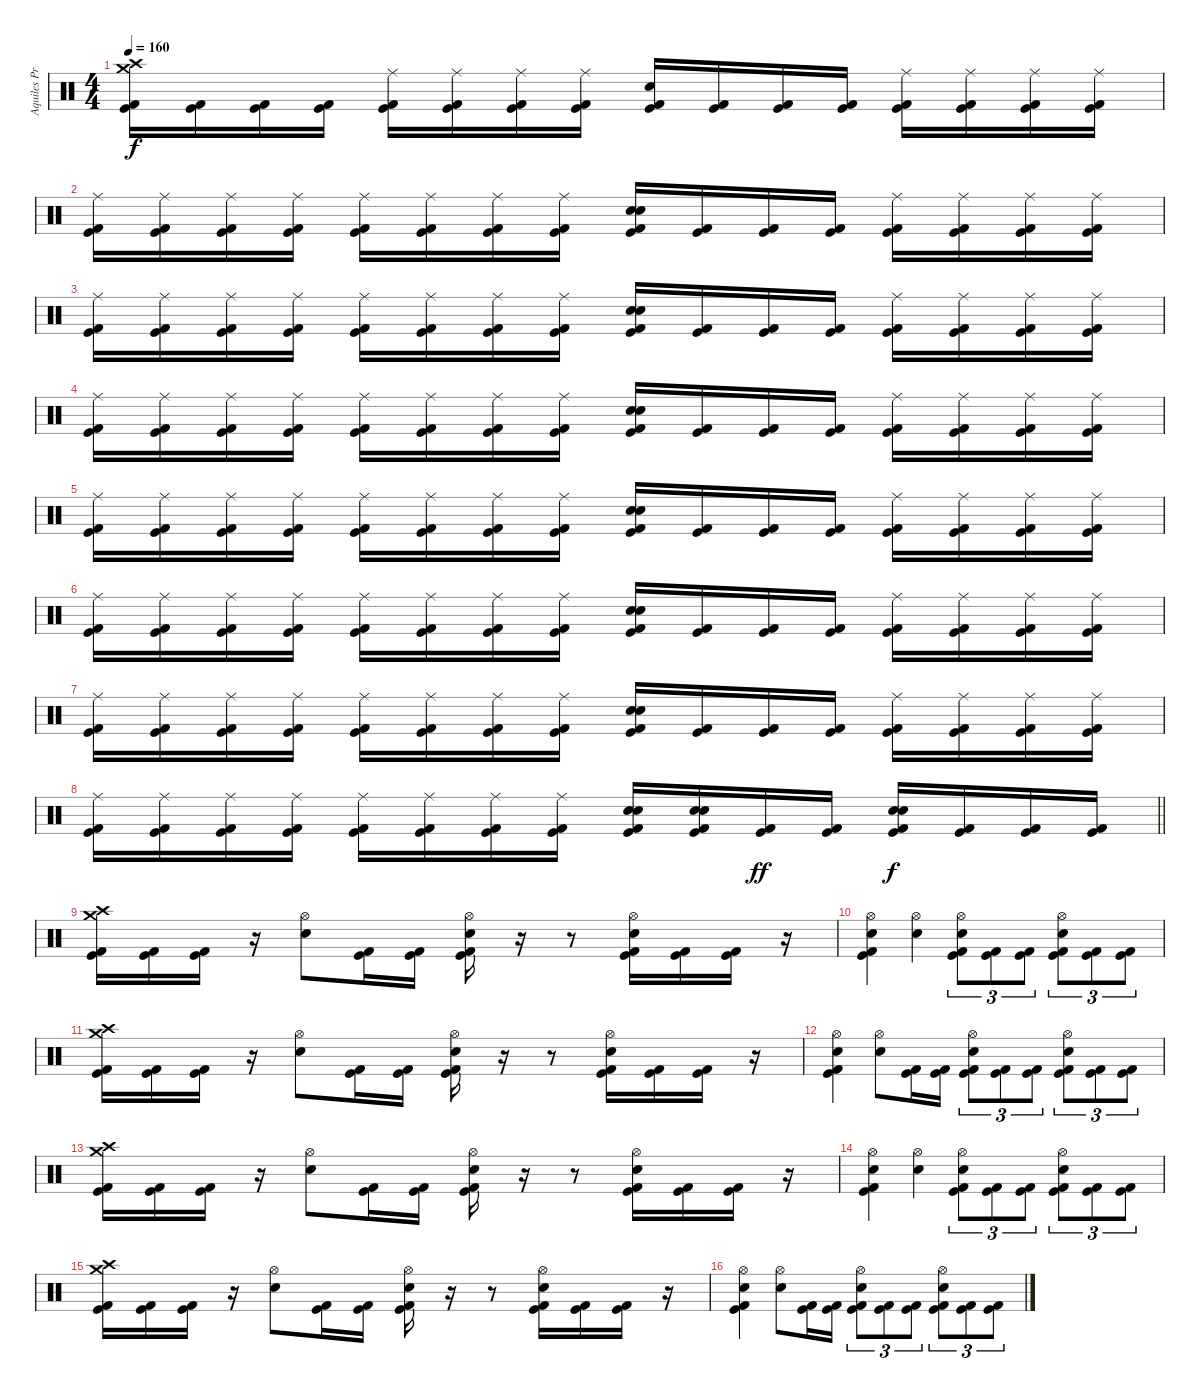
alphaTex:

\track ("Aquiles Priester" "Aquiles Pr") {instrument percussion}
\staff {score}
\articulation defaults
\ts (4 4)
\tempo 160
\clef neutral
\ks c
("Crash medium (hit)" "Crash high (hit)" "Kick (hit) 2" "Kick (hit)").16{dy f} ("Kick (hit) 2" "Kick (hit)").16 ("Kick (hit) 2" "Kick (hit)").16 ("Kick (hit) 2" "Kick (hit)").16 ("Ride (middle)" "Kick (hit) 2" "Kick (hit)").16 ("Ride (middle)" "Kick (hit) 2" "Kick (hit)").16 ("Ride (middle)" "Kick (hit) 2" "Kick (hit)").16 ("Ride (middle)" "Kick (hit) 2" "Kick (hit)").16 ("Electric Snare (hit)" "Kick (hit) 2" "Kick (hit)").16 ("Kick (hit) 2" "Kick (hit)").16 ("Kick (hit) 2" "Kick (hit)").16 ("Kick (hit) 2" "Kick (hit)").16 ("Ride (middle)" "Kick (hit) 2" "Kick (hit)").16 ("Ride (middle)" "Kick (hit) 2" "Kick (hit)").16 ("Ride (middle)" "Kick (hit) 2" "Kick (hit)").16 ("Ride (middle)" "Kick (hit) 2" "Kick (hit)").16 |
("Ride (middle)" "Kick (hit) 2" "Kick (hit)").16 ("Ride (middle)" "Kick (hit) 2" "Kick (hit)").16 ("Ride (middle)" "Kick (hit) 2" "Kick (hit)").16 ("Ride (middle)" "Kick (hit) 2" "Kick (hit)").16 ("Ride (middle)" "Kick (hit) 2" "Kick (hit)").16 ("Ride (middle)" "Kick (hit) 2" "Kick (hit)").16 ("Ride (middle)" "Kick (hit) 2" "Kick (hit)").16 ("Ride (middle)" "Kick (hit) 2" "Kick (hit)").16 ("Electric Snare (hit)" "Electric Snare (hit)" "Kick (hit) 2" "Kick (hit)").16 ("Kick (hit) 2" "Kick (hit)").16 ("Kick (hit) 2" "Kick (hit)").16 ("Kick (hit) 2" "Kick (hit)").16 ("Ride (middle)" "Kick (hit) 2" "Kick (hit)").16 ("Ride (middle)" "Kick (hit) 2" "Kick (hit)").16 ("Ride (middle)" "Kick (hit) 2" "Kick (hit)").16 ("Ride (middle)" "Kick (hit) 2" "Kick (hit)").16 |
("Ride (middle)" "Kick (hit) 2" "Kick (hit)").16 ("Ride (middle)" "Kick (hit) 2" "Kick (hit)").16 ("Ride (middle)" "Kick (hit) 2" "Kick (hit)").16 ("Ride (middle)" "Kick (hit) 2" "Kick (hit)").16 ("Ride (middle)" "Kick (hit) 2" "Kick (hit)").16 ("Ride (middle)" "Kick (hit) 2" "Kick (hit)").16 ("Ride (middle)" "Kick (hit) 2" "Kick (hit)").16 ("Ride (middle)" "Kick (hit) 2" "Kick (hit)").16 ("Electric Snare (hit)" "Electric Snare (hit)" "Kick (hit) 2" "Kick (hit)").16 ("Kick (hit) 2" "Kick (hit)").16 ("Kick (hit) 2" "Kick (hit)").16 ("Kick (hit) 2" "Kick (hit)").16 ("Ride (middle)" "Kick (hit) 2" "Kick (hit)").16 ("Ride (middle)" "Kick (hit) 2" "Kick (hit)").16 ("Ride (middle)" "Kick (hit) 2" "Kick (hit)").16 ("Ride (middle)" "Kick (hit) 2" "Kick (hit)").16 |
("Ride (middle)" "Kick (hit) 2" "Kick (hit)").16 ("Ride (middle)" "Kick (hit) 2" "Kick (hit)").16 ("Ride (middle)" "Kick (hit) 2" "Kick (hit)").16 ("Ride (middle)" "Kick (hit) 2" "Kick (hit)").16 ("Ride (middle)" "Kick (hit) 2" "Kick (hit)").16 ("Ride (middle)" "Kick (hit) 2" "Kick (hit)").16 ("Ride (middle)" "Kick (hit) 2" "Kick (hit)").16 ("Ride (middle)" "Kick (hit) 2" "Kick (hit)").16 ("Electric Snare (hit)" "Electric Snare (hit)" "Kick (hit) 2" "Kick (hit)").16 ("Kick (hit) 2" "Kick (hit)").16 ("Kick (hit) 2" "Kick (hit)").16 ("Kick (hit) 2" "Kick (hit)").16 ("Ride (middle)" "Kick (hit) 2" "Kick (hit)").16 ("Ride (middle)" "Kick (hit) 2" "Kick (hit)").16 ("Ride (middle)" "Kick (hit) 2" "Kick (hit)").16 ("Ride (middle)" "Kick (hit) 2" "Kick (hit)").16 |
("Ride (middle)" "Kick (hit) 2" "Kick (hit)").16 ("Ride (middle)" "Kick (hit) 2" "Kick (hit)").16 ("Ride (middle)" "Kick (hit) 2" "Kick (hit)").16 ("Ride (middle)" "Kick (hit) 2" "Kick (hit)").16 ("Ride (middle)" "Kick (hit) 2" "Kick (hit)").16 ("Ride (middle)" "Kick (hit) 2" "Kick (hit)").16 ("Ride (middle)" "Kick (hit) 2" "Kick (hit)").16 ("Ride (middle)" "Kick (hit) 2" "Kick (hit)").16 ("Electric Snare (hit)" "Electric Snare (hit)" "Kick (hit) 2" "Kick (hit)").16 ("Kick (hit) 2" "Kick (hit)").16 ("Kick (hit) 2" "Kick (hit)").16 ("Kick (hit) 2" "Kick (hit)").16 ("Ride (middle)" "Kick (hit) 2" "Kick (hit)").16 ("Ride (middle)" "Kick (hit) 2" "Kick (hit)").16 ("Ride (middle)" "Kick (hit) 2" "Kick (hit)").16 ("Ride (middle)" "Kick (hit) 2" "Kick (hit)").16 |
("Ride (middle)" "Kick (hit) 2" "Kick (hit)").16 ("Ride (middle)" "Kick (hit) 2" "Kick (hit)").16 ("Ride (middle)" "Kick (hit) 2" "Kick (hit)").16 ("Ride (middle)" "Kick (hit) 2" "Kick (hit)").16 ("Ride (middle)" "Kick (hit) 2" "Kick (hit)").16 ("Ride (middle)" "Kick (hit) 2" "Kick (hit)").16 ("Ride (middle)" "Kick (hit) 2" "Kick (hit)").16 ("Ride (middle)" "Kick (hit) 2" "Kick (hit)").16 ("Electric Snare (hit)" "Electric Snare (hit)" "Kick (hit) 2" "Kick (hit)").16 ("Kick (hit) 2" "Kick (hit)").16 ("Kick (hit) 2" "Kick (hit)").16 ("Kick (hit) 2" "Kick (hit)").16 ("Ride (middle)" "Kick (hit) 2" "Kick (hit)").16 ("Ride (middle)" "Kick (hit) 2" "Kick (hit)").16 ("Ride (middle)" "Kick (hit) 2" "Kick (hit)").16 ("Ride (middle)" "Kick (hit) 2" "Kick (hit)").16 |
("Ride (middle)" "Kick (hit) 2" "Kick (hit)").16 ("Ride (middle)" "Kick (hit) 2" "Kick (hit)").16 ("Ride (middle)" "Kick (hit) 2" "Kick (hit)").16 ("Ride (middle)" "Kick (hit) 2" "Kick (hit)").16 ("Ride (middle)" "Kick (hit) 2" "Kick (hit)").16 ("Ride (middle)" "Kick (hit) 2" "Kick (hit)").16 ("Ride (middle)" "Kick (hit) 2" "Kick (hit)").16 ("Ride (middle)" "Kick (hit) 2" "Kick (hit)").16 ("Electric Snare (hit)" "Electric Snare (hit)" "Kick (hit) 2" "Kick (hit)").16 ("Kick (hit) 2" "Kick (hit)").16 ("Kick (hit) 2" "Kick (hit)").16 ("Kick (hit) 2" "Kick (hit)").16 ("Ride (middle)" "Kick (hit) 2" "Kick (hit)").16 ("Ride (middle)" "Kick (hit) 2" "Kick (hit)").16 ("Ride (middle)" "Kick (hit) 2" "Kick (hit)").16 ("Ride (middle)" "Kick (hit) 2" "Kick (hit)").16 |
\barLineRight lightlight
("Ride (middle)" "Kick (hit) 2" "Kick (hit)").16 ("Ride (middle)" "Kick (hit) 2" "Kick (hit)").16 ("Ride (middle)" "Kick (hit) 2" "Kick (hit)").16 ("Ride (middle)" "Kick (hit) 2" "Kick (hit)").16 ("Ride (middle)" "Kick (hit) 2" "Kick (hit)").16 ("Ride (middle)" "Kick (hit) 2" "Kick (hit)").16 ("Ride (middle)" "Kick (hit) 2" "Kick (hit)").16 ("Ride (middle)" "Kick (hit) 2" "Kick (hit)").16 ("Electric Snare (hit)" "Electric Snare (hit)" "Kick (hit) 2" "Kick (hit)").16 ("Electric Snare (hit)" "Electric Snare (hit)" "Kick (hit) 2" "Kick (hit)").16 ("Kick (hit) 2" "Kick (hit)").16{dy ff} ("Kick (hit) 2" "Kick (hit)").16 ("Electric Snare (hit)" "Electric Snare (hit)" "Kick (hit) 2" "Kick (hit)").16{dy f} ("Kick (hit) 2" "Kick (hit)").16 ("Kick (hit) 2" "Kick (hit)").16 ("Kick (hit) 2" "Kick (hit)").16 |
("Crash medium (hit)" "Crash high (hit)" "Kick (hit)" "Kick (hit) 2").16 ("Kick (hit)" "Kick (hit) 2").16 ("Kick (hit)" "Kick (hit) 2").16 r.16 ("Hi-Hat (open)" "Electric Snare (hit)").8 ("Kick (hit)" "Kick (hit) 2").16 ("Kick (hit)" "Kick (hit) 2").16 ("Hi-Hat (open)" "Electric Snare (hit)" "Kick (hit)" "Kick (hit) 2").16 r.16 r.8 ("Hi-Hat (open)" "Electric Snare (hit)" "Kick (hit)" "Kick (hit) 2").16 ("Kick (hit)" "Kick (hit) 2").16 ("Kick (hit)" "Kick (hit) 2").16 r.16 |
("Hi-Hat (open)" "Electric Snare (hit)" "Kick (hit)" "Kick (hit) 2").4 ("Hi-Hat (open)" "Electric Snare (hit)").4 ("Hi-Hat (open)" "Electric Snare (hit)" "Kick (hit)" "Kick (hit) 2").8{tu (3 2)} ("Kick (hit)" "Kick (hit) 2").8{tu (3 2)} ("Kick (hit)" "Kick (hit) 2").8{tu (3 2)} ("Hi-Hat (open)" "Electric Snare (hit)" "Kick (hit)" "Kick (hit) 2").8{tu (3 2)} ("Kick (hit)" "Kick (hit) 2").8{tu (3 2)} ("Kick (hit)" "Kick (hit) 2").8{tu (3 2)} |
("Crash medium (hit)" "Crash high (hit)" "Kick (hit)" "Kick (hit) 2").16 ("Kick (hit)" "Kick (hit) 2").16 ("Kick (hit)" "Kick (hit) 2").16 r.16 ("Hi-Hat (open)" "Electric Snare (hit)").8 ("Kick (hit)" "Kick (hit) 2").16 ("Kick (hit)" "Kick (hit) 2").16 ("Hi-Hat (open)" "Electric Snare (hit)" "Kick (hit)" "Kick (hit) 2").16 r.16 r.8 ("Hi-Hat (open)" "Electric Snare (hit)" "Kick (hit)" "Kick (hit) 2").16 ("Kick (hit)" "Kick (hit) 2").16 ("Kick (hit)" "Kick (hit) 2").16 r.16 |
("Hi-Hat (open)" "Electric Snare (hit)" "Kick (hit)" "Kick (hit) 2").4 ("Hi-Hat (open)" "Electric Snare (hit)").8 ("Kick (hit)" "Kick (hit) 2").16 ("Kick (hit)" "Kick (hit) 2").16 ("Hi-Hat (open)" "Electric Snare (hit)" "Kick (hit)" "Kick (hit) 2").8{tu (3 2)} ("Kick (hit)" "Kick (hit) 2").8{tu (3 2)} ("Kick (hit)" "Kick (hit) 2").8{tu (3 2)} ("Hi-Hat (open)" "Electric Snare (hit)" "Kick (hit)" "Kick (hit) 2").8{tu (3 2)} ("Kick (hit)" "Kick (hit) 2").8{tu (3 2)} ("Kick (hit)" "Kick (hit) 2").8{tu (3 2)} |
("Crash medium (hit)" "Crash high (hit)" "Kick (hit)" "Kick (hit) 2").16 ("Kick (hit)" "Kick (hit) 2").16 ("Kick (hit)" "Kick (hit) 2").16 r.16 ("Hi-Hat (open)" "Electric Snare (hit)").8 ("Kick (hit)" "Kick (hit) 2").16 ("Kick (hit)" "Kick (hit) 2").16 ("Hi-Hat (open)" "Electric Snare (hit)" "Kick (hit)" "Kick (hit) 2").16 r.16 r.8 ("Hi-Hat (open)" "Electric Snare (hit)" "Kick (hit)" "Kick (hit) 2").16 ("Kick (hit)" "Kick (hit) 2").16 ("Kick (hit)" "Kick (hit) 2").16 r.16 |
("Hi-Hat (open)" "Electric Snare (hit)" "Kick (hit)" "Kick (hit) 2").4 ("Hi-Hat (open)" "Electric Snare (hit)").4 ("Hi-Hat (open)" "Electric Snare (hit)" "Kick (hit)" "Kick (hit) 2").8{tu (3 2)} ("Kick (hit)" "Kick (hit) 2").8{tu (3 2)} ("Kick (hit)" "Kick (hit) 2").8{tu (3 2)} ("Hi-Hat (open)" "Electric Snare (hit)" "Kick (hit)" "Kick (hit) 2").8{tu (3 2)} ("Kick (hit)" "Kick (hit) 2").8{tu (3 2)} ("Kick (hit)" "Kick (hit) 2").8{tu (3 2)} |
("Crash medium (hit)" "Crash high (hit)" "Kick (hit)" "Kick (hit) 2").16 ("Kick (hit)" "Kick (hit) 2").16 ("Kick (hit)" "Kick (hit) 2").16 r.16 ("Hi-Hat (open)" "Electric Snare (hit)").8 ("Kick (hit)" "Kick (hit) 2").16 ("Kick (hit)" "Kick (hit) 2").16 ("Hi-Hat (open)" "Electric Snare (hit)" "Kick (hit)" "Kick (hit) 2").16 r.16 r.8 ("Hi-Hat (open)" "Electric Snare (hit)" "Kick (hit)" "Kick (hit) 2").16 ("Kick (hit)" "Kick (hit) 2").16 ("Kick (hit)" "Kick (hit) 2").16 r.16 |
("Hi-Hat (open)" "Electric Snare (hit)" "Kick (hit)" "Kick (hit) 2").4 ("Hi-Hat (open)" "Electric Snare (hit)").8 ("Kick (hit)" "Kick (hit) 2").16 ("Kick (hit)" "Kick (hit) 2").16 ("Hi-Hat (open)" "Electric Snare (hit)" "Kick (hit)" "Kick (hit) 2").8{tu (3 2)} ("Kick (hit)" "Kick (hit) 2").8{tu (3 2)} ("Kick (hit)" "Kick (hit) 2").8{tu (3 2)} ("Hi-Hat (open)" "Electric Snare (hit)" "Kick (hit)" "Kick (hit) 2").8{tu (3 2)} ("Kick (hit)" "Kick (hit) 2").8{tu (3 2)} ("Kick (hit)" "Kick (hit) 2").8{tu (3 2)}
